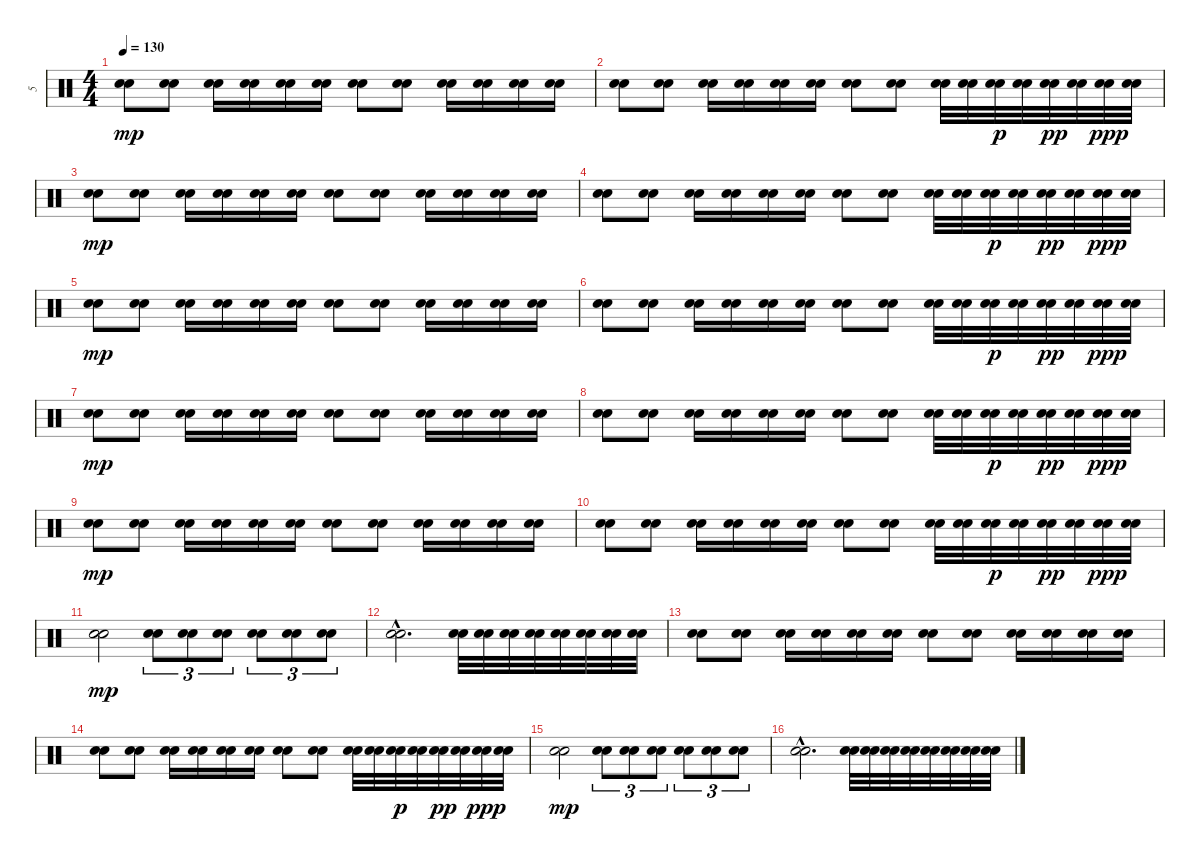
\track ("5" "5") {instrument percussion}
\staff {score}
\articulation defaults
\ts (4 4)
\tempo 130
\clef neutral
\ks c
("Electric Snare (hit)" "Snare (hit) 2").8{dy mp} ("Electric Snare (hit)" "Snare (hit) 2").8 ("Electric Snare (hit)" "Snare (hit) 2").16 ("Electric Snare (hit)" "Snare (hit) 2").16 ("Electric Snare (hit)" "Snare (hit) 2").16 ("Electric Snare (hit)" "Snare (hit) 2").16 ("Electric Snare (hit)" "Snare (hit) 2").8 ("Electric Snare (hit)" "Snare (hit) 2").8 ("Electric Snare (hit)" "Snare (hit) 2").16 ("Electric Snare (hit)" "Snare (hit) 2").16 ("Electric Snare (hit)" "Snare (hit) 2").16 ("Electric Snare (hit)" "Snare (hit) 2").16 |
("Electric Snare (hit)" "Snare (hit) 2").8 ("Electric Snare (hit)" "Snare (hit) 2").8 ("Electric Snare (hit)" "Snare (hit) 2").16 ("Electric Snare (hit)" "Snare (hit) 2").16 ("Electric Snare (hit)" "Snare (hit) 2").16 ("Electric Snare (hit)" "Snare (hit) 2").16 ("Electric Snare (hit)" "Snare (hit) 2").8 ("Electric Snare (hit)" "Snare (hit) 2").8 ("Electric Snare (hit)" "Snare (hit) 2").32 ("Electric Snare (hit)" "Snare (hit) 2").32 ("Electric Snare (hit)" "Snare (hit) 2").32{dy p} ("Electric Snare (hit)" "Snare (hit) 2").32 ("Electric Snare (hit)" "Snare (hit) 2").32{dy pp} ("Electric Snare (hit)" "Snare (hit) 2").32 ("Electric Snare (hit)" "Snare (hit) 2").32{dy ppp} ("Electric Snare (hit)" "Snare (hit) 2").32 |
("Electric Snare (hit)" "Snare (hit) 2").8{dy mp} ("Electric Snare (hit)" "Snare (hit) 2").8 ("Electric Snare (hit)" "Snare (hit) 2").16 ("Electric Snare (hit)" "Snare (hit) 2").16 ("Electric Snare (hit)" "Snare (hit) 2").16 ("Electric Snare (hit)" "Snare (hit) 2").16 ("Electric Snare (hit)" "Snare (hit) 2").8 ("Electric Snare (hit)" "Snare (hit) 2").8 ("Electric Snare (hit)" "Snare (hit) 2").16 ("Electric Snare (hit)" "Snare (hit) 2").16 ("Electric Snare (hit)" "Snare (hit) 2").16 ("Electric Snare (hit)" "Snare (hit) 2").16 |
("Electric Snare (hit)" "Snare (hit) 2").8 ("Electric Snare (hit)" "Snare (hit) 2").8 ("Electric Snare (hit)" "Snare (hit) 2").16 ("Electric Snare (hit)" "Snare (hit) 2").16 ("Electric Snare (hit)" "Snare (hit) 2").16 ("Electric Snare (hit)" "Snare (hit) 2").16 ("Electric Snare (hit)" "Snare (hit) 2").8 ("Electric Snare (hit)" "Snare (hit) 2").8 ("Electric Snare (hit)" "Snare (hit) 2").32 ("Electric Snare (hit)" "Snare (hit) 2").32 ("Electric Snare (hit)" "Snare (hit) 2").32{dy p} ("Electric Snare (hit)" "Snare (hit) 2").32 ("Electric Snare (hit)" "Snare (hit) 2").32{dy pp} ("Electric Snare (hit)" "Snare (hit) 2").32 ("Electric Snare (hit)" "Snare (hit) 2").32{dy ppp} ("Electric Snare (hit)" "Snare (hit) 2").32 |
("Electric Snare (hit)" "Snare (hit) 2").8{dy mp} ("Electric Snare (hit)" "Snare (hit) 2").8 ("Electric Snare (hit)" "Snare (hit) 2").16 ("Electric Snare (hit)" "Snare (hit) 2").16 ("Electric Snare (hit)" "Snare (hit) 2").16 ("Electric Snare (hit)" "Snare (hit) 2").16 ("Electric Snare (hit)" "Snare (hit) 2").8 ("Electric Snare (hit)" "Snare (hit) 2").8 ("Electric Snare (hit)" "Snare (hit) 2").16 ("Electric Snare (hit)" "Snare (hit) 2").16 ("Electric Snare (hit)" "Snare (hit) 2").16 ("Electric Snare (hit)" "Snare (hit) 2").16 |
("Electric Snare (hit)" "Snare (hit) 2").8 ("Electric Snare (hit)" "Snare (hit) 2").8 ("Electric Snare (hit)" "Snare (hit) 2").16 ("Electric Snare (hit)" "Snare (hit) 2").16 ("Electric Snare (hit)" "Snare (hit) 2").16 ("Electric Snare (hit)" "Snare (hit) 2").16 ("Electric Snare (hit)" "Snare (hit) 2").8 ("Electric Snare (hit)" "Snare (hit) 2").8 ("Electric Snare (hit)" "Snare (hit) 2").32 ("Electric Snare (hit)" "Snare (hit) 2").32 ("Electric Snare (hit)" "Snare (hit) 2").32{dy p} ("Electric Snare (hit)" "Snare (hit) 2").32 ("Electric Snare (hit)" "Snare (hit) 2").32{dy pp} ("Electric Snare (hit)" "Snare (hit) 2").32 ("Electric Snare (hit)" "Snare (hit) 2").32{dy ppp} ("Electric Snare (hit)" "Snare (hit) 2").32 |
("Electric Snare (hit)" "Snare (hit) 2").8{dy mp} ("Electric Snare (hit)" "Snare (hit) 2").8 ("Electric Snare (hit)" "Snare (hit) 2").16 ("Electric Snare (hit)" "Snare (hit) 2").16 ("Electric Snare (hit)" "Snare (hit) 2").16 ("Electric Snare (hit)" "Snare (hit) 2").16 ("Electric Snare (hit)" "Snare (hit) 2").8 ("Electric Snare (hit)" "Snare (hit) 2").8 ("Electric Snare (hit)" "Snare (hit) 2").16 ("Electric Snare (hit)" "Snare (hit) 2").16 ("Electric Snare (hit)" "Snare (hit) 2").16 ("Electric Snare (hit)" "Snare (hit) 2").16 |
("Electric Snare (hit)" "Snare (hit) 2").8 ("Electric Snare (hit)" "Snare (hit) 2").8 ("Electric Snare (hit)" "Snare (hit) 2").16 ("Electric Snare (hit)" "Snare (hit) 2").16 ("Electric Snare (hit)" "Snare (hit) 2").16 ("Electric Snare (hit)" "Snare (hit) 2").16 ("Electric Snare (hit)" "Snare (hit) 2").8 ("Electric Snare (hit)" "Snare (hit) 2").8 ("Electric Snare (hit)" "Snare (hit) 2").32 ("Electric Snare (hit)" "Snare (hit) 2").32 ("Electric Snare (hit)" "Snare (hit) 2").32{dy p} ("Electric Snare (hit)" "Snare (hit) 2").32 ("Electric Snare (hit)" "Snare (hit) 2").32{dy pp} ("Electric Snare (hit)" "Snare (hit) 2").32 ("Electric Snare (hit)" "Snare (hit) 2").32{dy ppp} ("Electric Snare (hit)" "Snare (hit) 2").32 |
("Electric Snare (hit)" "Snare (hit) 2").8{dy mp} ("Electric Snare (hit)" "Snare (hit) 2").8 ("Electric Snare (hit)" "Snare (hit) 2").16 ("Electric Snare (hit)" "Snare (hit) 2").16 ("Electric Snare (hit)" "Snare (hit) 2").16 ("Electric Snare (hit)" "Snare (hit) 2").16 ("Electric Snare (hit)" "Snare (hit) 2").8 ("Electric Snare (hit)" "Snare (hit) 2").8 ("Electric Snare (hit)" "Snare (hit) 2").16 ("Electric Snare (hit)" "Snare (hit) 2").16 ("Electric Snare (hit)" "Snare (hit) 2").16 ("Electric Snare (hit)" "Snare (hit) 2").16 |
("Electric Snare (hit)" "Snare (hit) 2").8 ("Electric Snare (hit)" "Snare (hit) 2").8 ("Electric Snare (hit)" "Snare (hit) 2").16 ("Electric Snare (hit)" "Snare (hit) 2").16 ("Electric Snare (hit)" "Snare (hit) 2").16 ("Electric Snare (hit)" "Snare (hit) 2").16 ("Electric Snare (hit)" "Snare (hit) 2").8 ("Electric Snare (hit)" "Snare (hit) 2").8 ("Electric Snare (hit)" "Snare (hit) 2").32 ("Electric Snare (hit)" "Snare (hit) 2").32 ("Electric Snare (hit)" "Snare (hit) 2").32{dy p} ("Electric Snare (hit)" "Snare (hit) 2").32 ("Electric Snare (hit)" "Snare (hit) 2").32{dy pp} ("Electric Snare (hit)" "Snare (hit) 2").32 ("Electric Snare (hit)" "Snare (hit) 2").32{dy ppp} ("Electric Snare (hit)" "Snare (hit) 2").32 |
("Electric Snare (hit)" "Snare (hit) 2").2{dy mp} ("Electric Snare (hit)" "Snare (hit) 2").8{tu (3 2)} ("Electric Snare (hit)" "Snare (hit) 2").8{tu (3 2)} ("Electric Snare (hit)" "Snare (hit) 2").8{tu (3 2)} ("Electric Snare (hit)" "Snare (hit) 2").8{tu (3 2)} ("Electric Snare (hit)" "Snare (hit) 2").8{tu (3 2)} ("Electric Snare (hit)" "Snare (hit) 2").8{tu (3 2)} |
("Electric Snare (hit)"{hac} "Snare (hit) 2"{hac}).2{d} ("Electric Snare (hit)" "Snare (hit) 2").32 ("Electric Snare (hit)" "Snare (hit) 2").32 ("Electric Snare (hit)" "Snare (hit) 2").32 ("Electric Snare (hit)" "Snare (hit) 2").32 ("Electric Snare (hit)" "Snare (hit) 2").32 ("Electric Snare (hit)" "Snare (hit) 2").32 ("Electric Snare (hit)" "Snare (hit) 2").32 ("Electric Snare (hit)" "Snare (hit) 2").32 |
("Electric Snare (hit)" "Snare (hit) 2").8 ("Electric Snare (hit)" "Snare (hit) 2").8 ("Electric Snare (hit)" "Snare (hit) 2").16 ("Electric Snare (hit)" "Snare (hit) 2").16 ("Electric Snare (hit)" "Snare (hit) 2").16 ("Electric Snare (hit)" "Snare (hit) 2").16 ("Electric Snare (hit)" "Snare (hit) 2").8 ("Electric Snare (hit)" "Snare (hit) 2").8 ("Electric Snare (hit)" "Snare (hit) 2").16 ("Electric Snare (hit)" "Snare (hit) 2").16 ("Electric Snare (hit)" "Snare (hit) 2").16 ("Electric Snare (hit)" "Snare (hit) 2").16 |
("Electric Snare (hit)" "Snare (hit) 2").8 ("Electric Snare (hit)" "Snare (hit) 2").8 ("Electric Snare (hit)" "Snare (hit) 2").16 ("Electric Snare (hit)" "Snare (hit) 2").16 ("Electric Snare (hit)" "Snare (hit) 2").16 ("Electric Snare (hit)" "Snare (hit) 2").16 ("Electric Snare (hit)" "Snare (hit) 2").8 ("Electric Snare (hit)" "Snare (hit) 2").8 ("Electric Snare (hit)" "Snare (hit) 2").32 ("Electric Snare (hit)" "Snare (hit) 2").32 ("Electric Snare (hit)" "Snare (hit) 2").32{dy p} ("Electric Snare (hit)" "Snare (hit) 2").32 ("Electric Snare (hit)" "Snare (hit) 2").32{dy pp} ("Electric Snare (hit)" "Snare (hit) 2").32 ("Electric Snare (hit)" "Snare (hit) 2").32{dy ppp} ("Electric Snare (hit)" "Snare (hit) 2").32 |
("Electric Snare (hit)" "Snare (hit) 2").2{dy mp} ("Electric Snare (hit)" "Snare (hit) 2").8{tu (3 2)} ("Electric Snare (hit)" "Snare (hit) 2").8{tu (3 2)} ("Electric Snare (hit)" "Snare (hit) 2").8{tu (3 2)} ("Electric Snare (hit)" "Snare (hit) 2").8{tu (3 2)} ("Electric Snare (hit)" "Snare (hit) 2").8{tu (3 2)} ("Electric Snare (hit)" "Snare (hit) 2").8{tu (3 2)} |
("Electric Snare (hit)"{hac} "Snare (hit) 2"{hac}).2{d} ("Electric Snare (hit)" "Snare (hit) 2").32 ("Electric Snare (hit)" "Snare (hit) 2").32 ("Electric Snare (hit)" "Snare (hit) 2").32 ("Electric Snare (hit)" "Snare (hit) 2").32 ("Electric Snare (hit)" "Snare (hit) 2").32 ("Electric Snare (hit)" "Snare (hit) 2").32 ("Electric Snare (hit)" "Snare (hit) 2").32 ("Electric Snare (hit)" "Snare (hit) 2").32
